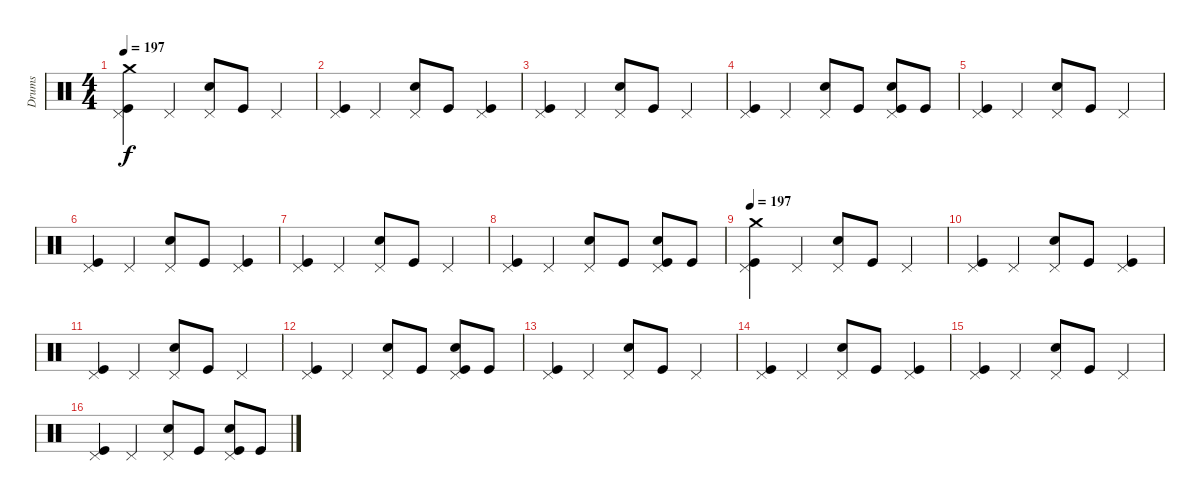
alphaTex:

\track ("Drums" "Drums") {instrument percussion}
\staff {score}
\articulation defaults
\ts (4 4)
\tempo 197
\clef neutral
\ks c
("Crash medium (hit)" "Pedal Hi-Hat (hit)" "Kick (hit)").4{dy f volume 16} "Pedal Hi-Hat (hit)".4 ("Pedal Hi-Hat (hit)" "Snare (hit) 2").8 "Kick (hit)".8 "Pedal Hi-Hat (hit)".4 |
("Pedal Hi-Hat (hit)" "Kick (hit)").4 "Pedal Hi-Hat (hit)".4 ("Pedal Hi-Hat (hit)" "Snare (hit) 2").8 "Kick (hit)".8 ("Pedal Hi-Hat (hit)" "Kick (hit)").4 |
("Pedal Hi-Hat (hit)" "Kick (hit)").4 "Pedal Hi-Hat (hit)".4 ("Pedal Hi-Hat (hit)" "Snare (hit) 2").8 "Kick (hit)".8 "Pedal Hi-Hat (hit)".4 |
("Pedal Hi-Hat (hit)" "Kick (hit)").4 "Pedal Hi-Hat (hit)".4 ("Pedal Hi-Hat (hit)" "Snare (hit) 2").8 "Kick (hit)".8 ("Pedal Hi-Hat (hit)" "Snare (hit) 2" "Kick (hit)").8 "Kick (hit)".8 |
("Pedal Hi-Hat (hit)" "Kick (hit)").4 "Pedal Hi-Hat (hit)".4 ("Pedal Hi-Hat (hit)" "Snare (hit) 2").8 "Kick (hit)".8 "Pedal Hi-Hat (hit)".4 |
("Pedal Hi-Hat (hit)" "Kick (hit)").4 "Pedal Hi-Hat (hit)".4 ("Pedal Hi-Hat (hit)" "Snare (hit) 2").8 "Kick (hit)".8 ("Pedal Hi-Hat (hit)" "Kick (hit)").4 |
("Pedal Hi-Hat (hit)" "Kick (hit)").4 "Pedal Hi-Hat (hit)".4 ("Pedal Hi-Hat (hit)" "Snare (hit) 2").8 "Kick (hit)".8 "Pedal Hi-Hat (hit)".4 |
("Pedal Hi-Hat (hit)" "Kick (hit)").4 "Pedal Hi-Hat (hit)".4 ("Pedal Hi-Hat (hit)" "Snare (hit) 2").8 "Kick (hit)".8 ("Pedal Hi-Hat (hit)" "Snare (hit) 2" "Kick (hit)").8 "Kick (hit)".8 |
\tempo 197
("Crash medium (hit)" "Pedal Hi-Hat (hit)" "Kick (hit)").4{volume 16} "Pedal Hi-Hat (hit)".4 ("Pedal Hi-Hat (hit)" "Snare (hit) 2").8 "Kick (hit)".8 "Pedal Hi-Hat (hit)".4 |
("Pedal Hi-Hat (hit)" "Kick (hit)").4 "Pedal Hi-Hat (hit)".4 ("Pedal Hi-Hat (hit)" "Snare (hit) 2").8 "Kick (hit)".8 ("Pedal Hi-Hat (hit)" "Kick (hit)").4 |
("Pedal Hi-Hat (hit)" "Kick (hit)").4 "Pedal Hi-Hat (hit)".4 ("Pedal Hi-Hat (hit)" "Snare (hit) 2").8 "Kick (hit)".8 "Pedal Hi-Hat (hit)".4 |
("Pedal Hi-Hat (hit)" "Kick (hit)").4 "Pedal Hi-Hat (hit)".4 ("Pedal Hi-Hat (hit)" "Snare (hit) 2").8 "Kick (hit)".8 ("Pedal Hi-Hat (hit)" "Snare (hit) 2" "Kick (hit)").8 "Kick (hit)".8 |
("Pedal Hi-Hat (hit)" "Kick (hit)").4 "Pedal Hi-Hat (hit)".4 ("Pedal Hi-Hat (hit)" "Snare (hit) 2").8 "Kick (hit)".8 "Pedal Hi-Hat (hit)".4 |
("Pedal Hi-Hat (hit)" "Kick (hit)").4 "Pedal Hi-Hat (hit)".4 ("Pedal Hi-Hat (hit)" "Snare (hit) 2").8 "Kick (hit)".8 ("Pedal Hi-Hat (hit)" "Kick (hit)").4 |
("Pedal Hi-Hat (hit)" "Kick (hit)").4 "Pedal Hi-Hat (hit)".4 ("Pedal Hi-Hat (hit)" "Snare (hit) 2").8 "Kick (hit)".8 "Pedal Hi-Hat (hit)".4 |
("Pedal Hi-Hat (hit)" "Kick (hit)").4 "Pedal Hi-Hat (hit)".4 ("Pedal Hi-Hat (hit)" "Snare (hit) 2").8 "Kick (hit)".8 ("Pedal Hi-Hat (hit)" "Snare (hit) 2" "Kick (hit)").8 "Kick (hit)".8
